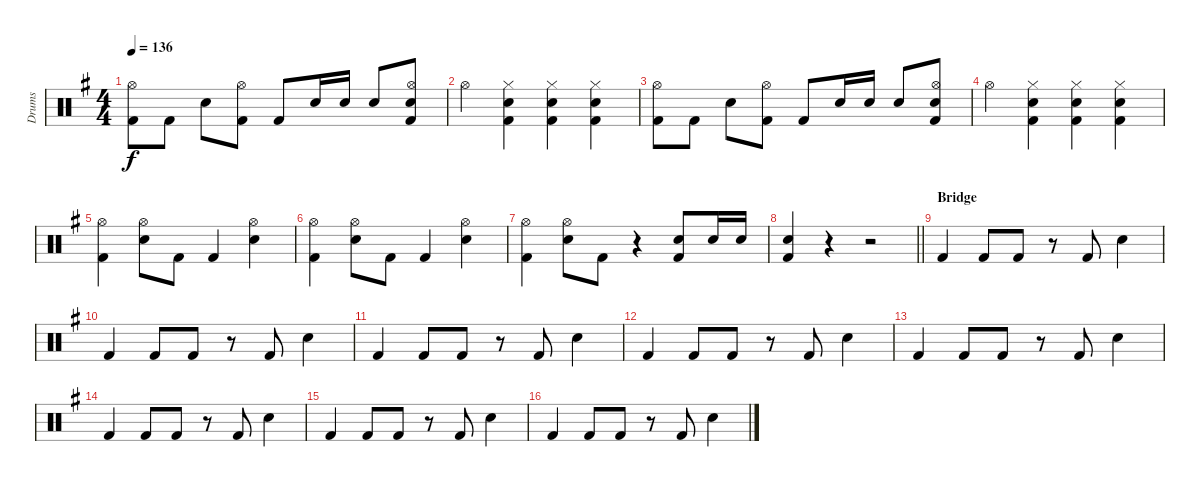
\track ("Drums" "Drums") {instrument percussion}
\staff {score}
\articulation defaults
\ts (4 4)
\tempo 136
\clef neutral
\ks g
("Kick (hit) 2" "Hi-Hat (open)").8{dy f} "Kick (hit) 2".8 "Snare (hit) 2".8 ("Kick (hit) 2" "Hi-Hat (open)").8 "Kick (hit) 2".8 "Snare (hit) 2".16 "Snare (hit) 2".16 "Snare (hit) 2".8 ("Snare (hit) 2" "Kick (hit) 2" "Hi-Hat (open)").8 |
"Hi-Hat (open)".4 ("Hi-Hat (closed)" "Snare (hit) 2" "Kick (hit) 2").4 ("Hi-Hat (closed)" "Kick (hit) 2" "Snare (hit) 2").4 ("Hi-Hat (closed)" "Kick (hit) 2" "Snare (hit) 2").4 |
("Kick (hit) 2" "Hi-Hat (open)").8 "Kick (hit) 2".8 "Snare (hit) 2".8 ("Kick (hit) 2" "Hi-Hat (open)").8 "Kick (hit) 2".8 "Snare (hit) 2".16 "Snare (hit) 2".16 "Snare (hit) 2".8 ("Snare (hit) 2" "Kick (hit) 2" "Hi-Hat (open)").8 |
"Hi-Hat (open)".4 ("Hi-Hat (closed)" "Snare (hit) 2" "Kick (hit) 2").4 ("Hi-Hat (closed)" "Kick (hit) 2" "Snare (hit) 2").4 ("Hi-Hat (closed)" "Kick (hit) 2" "Snare (hit) 2").4 |
("Hi-Hat (open)" "Kick (hit) 2").4 ("Snare (hit) 2" "Hi-Hat (open)").8 "Kick (hit) 2".8 "Kick (hit) 2".4 ("Snare (hit) 2" "Hi-Hat (open)").4 |
("Hi-Hat (open)" "Kick (hit) 2").4 ("Snare (hit) 2" "Hi-Hat (open)").8 "Kick (hit) 2".8 "Kick (hit) 2".4 ("Snare (hit) 2" "Hi-Hat (open)").4 |
("Hi-Hat (open)" "Kick (hit) 2").4 ("Snare (hit) 2" "Hi-Hat (open)").8 "Kick (hit) 2".8 r.4 ("Snare (hit) 2" "Kick (hit) 2").8 "Snare (hit) 2".16 "Snare (hit) 2".16 |
\barLineRight lightlight
("Snare (hit) 2" "Kick (hit) 2").4 r.4 r.2 |
\section ("" "Bridge")
"Kick (hit) 2".4 "Kick (hit) 2".8 "Kick (hit) 2".8 r.8 "Kick (hit) 2".8 "Snare (hit) 2".4 |
"Kick (hit) 2".4 "Kick (hit) 2".8 "Kick (hit) 2".8 r.8 "Kick (hit) 2".8 "Snare (hit) 2".4 |
"Kick (hit) 2".4 "Kick (hit) 2".8 "Kick (hit) 2".8 r.8 "Kick (hit) 2".8 "Snare (hit) 2".4 |
"Kick (hit) 2".4 "Kick (hit) 2".8 "Kick (hit) 2".8 r.8 "Kick (hit) 2".8 "Snare (hit) 2".4 |
"Kick (hit) 2".4 "Kick (hit) 2".8 "Kick (hit) 2".8 r.8 "Kick (hit) 2".8 "Snare (hit) 2".4 |
"Kick (hit) 2".4 "Kick (hit) 2".8 "Kick (hit) 2".8 r.8 "Kick (hit) 2".8 "Snare (hit) 2".4 |
"Kick (hit) 2".4 "Kick (hit) 2".8 "Kick (hit) 2".8 r.8 "Kick (hit) 2".8 "Snare (hit) 2".4 |
"Kick (hit) 2".4 "Kick (hit) 2".8 "Kick (hit) 2".8 r.8 "Kick (hit) 2".8 "Snare (hit) 2".4
